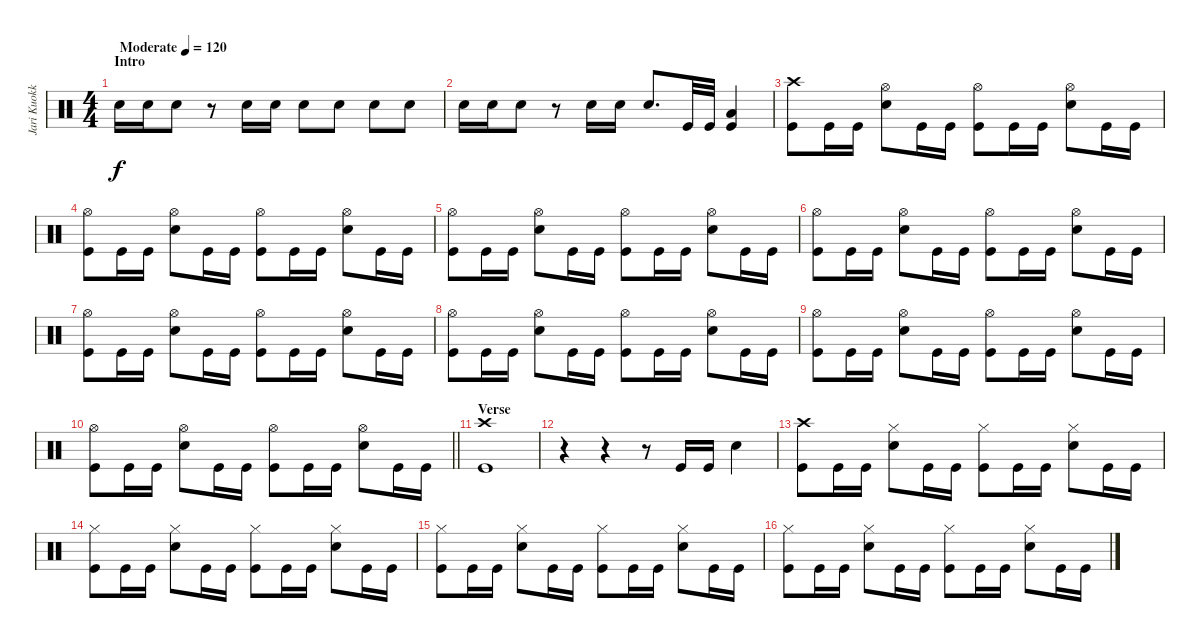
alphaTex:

\track ("Jari Kuokkanen" "Jari Kuokk") {instrument percussion bank 255}
\staff {score}
\articulation defaults
\ts (4 4)
\section ("" "Intro")
\tempo (120 "Moderate")
\clef neutral
\ks c "Snare (hit) 2".16{dy f} "Snare (hit) 2".16 "Snare (hit) 2".8
r.8 "Snare (hit) 2".16 "Snare (hit) 2".16 "Snare (hit) 2".8 "Snare (hit) 2".8 "Snare (hit) 2".8 "Snare (hit) 2".8 |
"Snare (hit) 2".16 "Snare (hit) 2".16 "Snare (hit) 2".8 r.8 "Snare (hit) 2".16 "Snare (hit) 2".16 "Snare (hit) 2".8{d} "Kick (hit)".32 "Kick (hit)".32 ("Kick (hit)" "Low Tom (hit)").4{volume 13} |
("Crash high (hit)" "Kick (hit)").8 "Kick (hit)".16 "Kick (hit)".16 ("Hi-Hat (open)" "Snare (hit) 2").8 "Kick (hit)".16 "Kick (hit)".16 ("Hi-Hat (open)" "Kick (hit)").8 "Kick (hit)".16 "Kick (hit)".16 ("Hi-Hat (open)" "Snare (hit) 2").8 "Kick (hit)".16 "Kick (hit)".16 |
("Hi-Hat (open)" "Kick (hit)").8 "Kick (hit)".16 "Kick (hit)".16 ("Hi-Hat (open)" "Snare (hit) 2").8 "Kick (hit)".16 "Kick (hit)".16 ("Hi-Hat (open)" "Kick (hit)").8 "Kick (hit)".16 "Kick (hit)".16 ("Hi-Hat (open)" "Snare (hit) 2").8 "Kick (hit)".16 "Kick (hit)".16 |
("Hi-Hat (open)" "Kick (hit)").8 "Kick (hit)".16 "Kick (hit)".16 ("Hi-Hat (open)" "Snare (hit) 2").8 "Kick (hit)".16 "Kick (hit)".16 ("Hi-Hat (open)" "Kick (hit)").8 "Kick (hit)".16 "Kick (hit)".16 ("Hi-Hat (open)" "Snare (hit) 2").8 "Kick (hit)".16 "Kick (hit)".16 |
("Hi-Hat (open)" "Kick (hit)").8 "Kick (hit)".16 "Kick (hit)".16 ("Hi-Hat (open)" "Snare (hit) 2").8 "Kick (hit)".16 "Kick (hit)".16 ("Hi-Hat (open)" "Kick (hit)").8 "Kick (hit)".16 "Kick (hit)".16 ("Hi-Hat (open)" "Snare (hit) 2").8 "Kick (hit)".16 "Kick (hit)".16 |
("Hi-Hat (open)" "Kick (hit)").8 "Kick (hit)".16 "Kick (hit)".16 ("Hi-Hat (open)" "Snare (hit) 2").8 "Kick (hit)".16 "Kick (hit)".16 ("Hi-Hat (open)" "Kick (hit)").8 "Kick (hit)".16 "Kick (hit)".16 ("Hi-Hat (open)" "Snare (hit) 2").8 "Kick (hit)".16 "Kick (hit)".16 |
("Hi-Hat (open)" "Kick (hit)").8 "Kick (hit)".16 "Kick (hit)".16 ("Hi-Hat (open)" "Snare (hit) 2").8 "Kick (hit)".16 "Kick (hit)".16 ("Hi-Hat (open)" "Kick (hit)").8 "Kick (hit)".16 "Kick (hit)".16 ("Hi-Hat (open)" "Snare (hit) 2").8 "Kick (hit)".16 "Kick (hit)".16 |
("Hi-Hat (open)" "Kick (hit)").8 "Kick (hit)".16 "Kick (hit)".16 ("Hi-Hat (open)" "Snare (hit) 2").8 "Kick (hit)".16 "Kick (hit)".16 ("Hi-Hat (open)" "Kick (hit)").8 "Kick (hit)".16 "Kick (hit)".16 ("Hi-Hat (open)" "Snare (hit) 2").8 "Kick (hit)".16 "Kick (hit)".16 |
\barLineRight lightlight
("Hi-Hat (open)" "Kick (hit)").8 "Kick (hit)".16 "Kick (hit)".16 ("Hi-Hat (open)" "Snare (hit) 2").8 "Kick (hit)".16 "Kick (hit)".16 ("Hi-Hat (open)" "Kick (hit)").8 "Kick (hit)".16 "Kick (hit)".16 ("Hi-Hat (open)" "Snare (hit) 2").8 "Kick (hit)".16 "Kick (hit)".16 |
\section ("" "Verse")
("Crash high (hit)" "Kick (hit)").1 |
r.4 r.4 r.8 "Kick (hit)".16 "Kick (hit)".16 "Snare (hit) 2".4 |
("Crash high (hit)" "Kick (hit)").8 "Kick (hit)".16 "Kick (hit)".16 ("Hi-Hat (closed)" "Snare (hit) 2").8 "Kick (hit)".16 "Kick (hit)".16 ("Hi-Hat (closed)" "Kick (hit)").8 "Kick (hit)".16 "Kick (hit)".16 ("Hi-Hat (closed)" "Snare (hit) 2").8 "Kick (hit)".16 "Kick (hit)".16 |
("Hi-Hat (closed)" "Kick (hit)").8 "Kick (hit)".16 "Kick (hit)".16 ("Hi-Hat (closed)" "Snare (hit) 2").8 "Kick (hit)".16 "Kick (hit)".16 ("Hi-Hat (closed)" "Kick (hit)").8 "Kick (hit)".16 "Kick (hit)".16 ("Hi-Hat (closed)" "Snare (hit) 2").8 "Kick (hit)".16 "Kick (hit)".16 |
("Hi-Hat (closed)" "Kick (hit)").8 "Kick (hit)".16 "Kick (hit)".16 ("Hi-Hat (closed)" "Snare (hit) 2").8 "Kick (hit)".16 "Kick (hit)".16 ("Hi-Hat (closed)" "Kick (hit)").8 "Kick (hit)".16 "Kick (hit)".16 ("Hi-Hat (closed)" "Snare (hit) 2").8 "Kick (hit)".16 "Kick (hit)".16 |
("Hi-Hat (closed)" "Kick (hit)").8 "Kick (hit)".16 "Kick (hit)".16 ("Hi-Hat (closed)" "Snare (hit) 2").8 "Kick (hit)".16 "Kick (hit)".16 ("Hi-Hat (closed)" "Kick (hit)").8 "Kick (hit)".16 "Kick (hit)".16 ("Hi-Hat (closed)" "Snare (hit) 2").8 "Kick (hit)".16 "Kick (hit)".16
